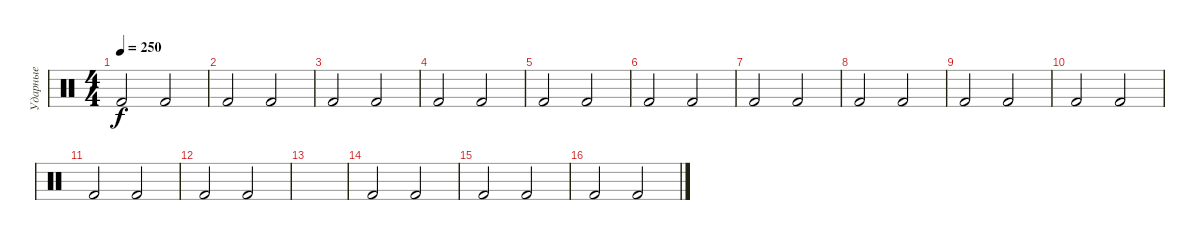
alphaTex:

\track ("Ударные" "Ударные") {instrument percussion}
\staff {score}
\articulation defaults
\ts (4 4)
\tempo 250
\clef neutral
\ks c "Kick (hit) 2".2{dy f} "Kick (hit) 2".2
|
"Kick (hit) 2".2 "Kick (hit) 2".2 |
"Kick (hit) 2".2 "Kick (hit) 2".2 |
"Kick (hit) 2".2 "Kick (hit) 2".2 |
"Kick (hit) 2".2 "Kick (hit) 2".2 |
"Kick (hit) 2".2 "Kick (hit) 2".2 |
"Kick (hit) 2".2 "Kick (hit) 2".2 |
"Kick (hit) 2".2 "Kick (hit) 2".2 |
"Kick (hit) 2".2 "Kick (hit) 2".2 |
"Kick (hit) 2".2 "Kick (hit) 2".2 |
"Kick (hit) 2".2 "Kick (hit) 2".2 |
"Kick (hit) 2".2 "Kick (hit) 2".2 |
|
"Kick (hit) 2".2 "Kick (hit) 2".2 |
"Kick (hit) 2".2 "Kick (hit) 2".2 |
"Kick (hit) 2".2 "Kick (hit) 2".2
